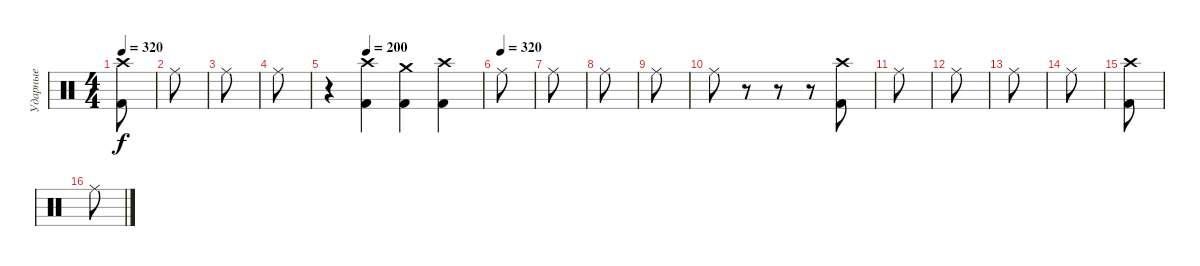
\track ("Ударные" "Ударные") {instrument percussion}
\staff {score}
\articulation defaults
\ts (4 4)
\tempo 320
\clef neutral
\ks c
("Kick (hit) 2" "Crash high (hit)").8{dy f} |
"Ride (middle)".8 |
"Ride (middle)".8 |
"Ride (middle)".8 |
\tempo (200 0.25)
r.4 ("Kick (hit) 2" "Crash high (hit)").4 ("Kick (hit) 2" "Crash medium (hit)").4 ("Kick (hit) 2" "Crash high (hit)").4 |
\tempo (320)
"Ride (middle)".8 |
"Ride (middle)".8 |
"Ride (middle)".8 |
"Ride (middle)".8 |
"Ride (middle)".8 r.8 r.8 r.8 ("Kick (hit) 2" "Crash high (hit)").8 |
"Ride (middle)".8 |
"Ride (middle)".8 |
"Ride (middle)".8 |
"Ride (middle)".8 |
("Kick (hit) 2" "Crash high (hit)").8 |
"Ride (middle)".8
